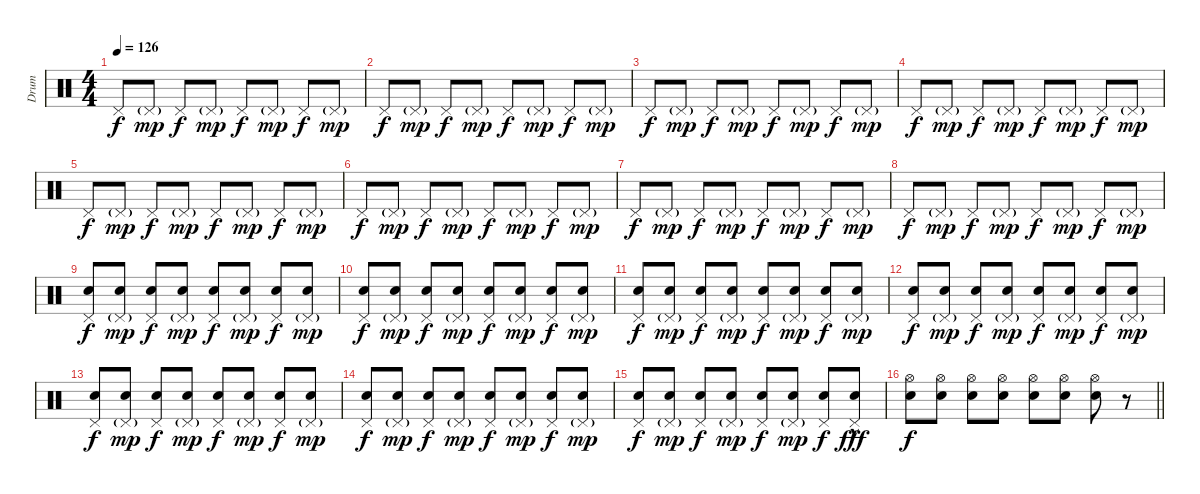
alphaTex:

\track ("Drum" "Drum") {instrument percussion}
\staff {score}
\articulation defaults
\ts (4 4)
\tempo 126
\clef neutral
\ks c "Pedal Hi-Hat (hit)".8{dy f} "Pedal Hi-Hat (hit)"{g}.8{dy mp} "Pedal Hi-Hat (hit)".8{dy f} "Pedal Hi-Hat (hit)"{g}.8{dy mp} "Pedal Hi-Hat (hit)".8{dy f} "Pedal Hi-Hat (hit)"{g}.8{dy mp} "Pedal Hi-Hat (hit)".8{dy f} "Pedal Hi-Hat (hit)"{g}.8{dy mp}
|
"Pedal Hi-Hat (hit)".8{dy f} "Pedal Hi-Hat (hit)"{g}.8{dy mp} "Pedal Hi-Hat (hit)".8{dy f} "Pedal Hi-Hat (hit)"{g}.8{dy mp} "Pedal Hi-Hat (hit)".8{dy f} "Pedal Hi-Hat (hit)"{g}.8{dy mp} "Pedal Hi-Hat (hit)".8{dy f} "Pedal Hi-Hat (hit)"{g}.8{dy mp} |
"Pedal Hi-Hat (hit)".8{dy f} "Pedal Hi-Hat (hit)"{g}.8{dy mp} "Pedal Hi-Hat (hit)".8{dy f} "Pedal Hi-Hat (hit)"{g}.8{dy mp} "Pedal Hi-Hat (hit)".8{dy f} "Pedal Hi-Hat (hit)"{g}.8{dy mp} "Pedal Hi-Hat (hit)".8{dy f} "Pedal Hi-Hat (hit)"{g}.8{dy mp} |
"Pedal Hi-Hat (hit)".8{dy f} "Pedal Hi-Hat (hit)"{g}.8{dy mp} "Pedal Hi-Hat (hit)".8{dy f} "Pedal Hi-Hat (hit)"{g}.8{dy mp} "Pedal Hi-Hat (hit)".8{dy f} "Pedal Hi-Hat (hit)"{g}.8{dy mp} "Pedal Hi-Hat (hit)".8{dy f} "Pedal Hi-Hat (hit)"{g}.8{dy mp} |
"Pedal Hi-Hat (hit)".8{dy f} "Pedal Hi-Hat (hit)"{g}.8{dy mp} "Pedal Hi-Hat (hit)".8{dy f} "Pedal Hi-Hat (hit)"{g}.8{dy mp} "Pedal Hi-Hat (hit)".8{dy f} "Pedal Hi-Hat (hit)"{g}.8{dy mp} "Pedal Hi-Hat (hit)".8{dy f} "Pedal Hi-Hat (hit)"{g}.8{dy mp} |
"Pedal Hi-Hat (hit)".8{dy f} "Pedal Hi-Hat (hit)"{g}.8{dy mp} "Pedal Hi-Hat (hit)".8{dy f} "Pedal Hi-Hat (hit)"{g}.8{dy mp} "Pedal Hi-Hat (hit)".8{dy f} "Pedal Hi-Hat (hit)"{g}.8{dy mp} "Pedal Hi-Hat (hit)".8{dy f} "Pedal Hi-Hat (hit)"{g}.8{dy mp} |
"Pedal Hi-Hat (hit)".8{dy f} "Pedal Hi-Hat (hit)"{g}.8{dy mp} "Pedal Hi-Hat (hit)".8{dy f} "Pedal Hi-Hat (hit)"{g}.8{dy mp} "Pedal Hi-Hat (hit)".8{dy f} "Pedal Hi-Hat (hit)"{g}.8{dy mp} "Pedal Hi-Hat (hit)".8{dy f} "Pedal Hi-Hat (hit)"{g}.8{dy mp} |
"Pedal Hi-Hat (hit)".8{dy f} "Pedal Hi-Hat (hit)"{g}.8{dy mp} "Pedal Hi-Hat (hit)".8{dy f} "Pedal Hi-Hat (hit)"{g}.8{dy mp} "Pedal Hi-Hat (hit)".8{dy f} "Pedal Hi-Hat (hit)"{g}.8{dy mp} "Pedal Hi-Hat (hit)".8{dy f} "Pedal Hi-Hat (hit)"{g}.8{dy mp volume 4} |
("Electric Snare (hit)" "Pedal Hi-Hat (hit)").8{dy f volume 6} ("Electric Snare (hit)" "Pedal Hi-Hat (hit)"{g}).8{dy mp} ("Electric Snare (hit)" "Pedal Hi-Hat (hit)").8{dy f} ("Electric Snare (hit)" "Pedal Hi-Hat (hit)"{g}).8{dy mp} ("Electric Snare (hit)" "Pedal Hi-Hat (hit)").8{dy f} ("Electric Snare (hit)" "Pedal Hi-Hat (hit)"{g}).8{dy mp} ("Electric Snare (hit)" "Pedal Hi-Hat (hit)").8{dy f} ("Electric Snare (hit)" "Pedal Hi-Hat (hit)"{g}).8{dy mp} |
("Electric Snare (hit)" "Pedal Hi-Hat (hit)").8{dy f volume 8} ("Electric Snare (hit)" "Pedal Hi-Hat (hit)"{g}).8{dy mp} ("Electric Snare (hit)" "Pedal Hi-Hat (hit)").8{dy f} ("Electric Snare (hit)" "Pedal Hi-Hat (hit)"{g}).8{dy mp} ("Electric Snare (hit)" "Pedal Hi-Hat (hit)").8{dy f} ("Electric Snare (hit)" "Pedal Hi-Hat (hit)"{g}).8{dy mp} ("Electric Snare (hit)" "Pedal Hi-Hat (hit)").8{dy f} ("Electric Snare (hit)" "Pedal Hi-Hat (hit)"{g}).8{dy mp} |
("Electric Snare (hit)" "Pedal Hi-Hat (hit)").8{dy f volume 10} ("Electric Snare (hit)" "Pedal Hi-Hat (hit)"{g}).8{dy mp} ("Electric Snare (hit)" "Pedal Hi-Hat (hit)").8{dy f} ("Electric Snare (hit)" "Pedal Hi-Hat (hit)"{g}).8{dy mp} ("Electric Snare (hit)" "Pedal Hi-Hat (hit)").8{dy f} ("Electric Snare (hit)" "Pedal Hi-Hat (hit)"{g}).8{dy mp} ("Electric Snare (hit)" "Pedal Hi-Hat (hit)").8{dy f} ("Electric Snare (hit)" "Pedal Hi-Hat (hit)"{g}).8{dy mp} |
("Electric Snare (hit)" "Pedal Hi-Hat (hit)").8{dy f} ("Electric Snare (hit)" "Pedal Hi-Hat (hit)"{g}).8{dy mp} ("Electric Snare (hit)" "Pedal Hi-Hat (hit)").8{dy f} ("Electric Snare (hit)" "Pedal Hi-Hat (hit)"{g}).8{dy mp} ("Electric Snare (hit)" "Pedal Hi-Hat (hit)").8{dy f} ("Electric Snare (hit)" "Pedal Hi-Hat (hit)"{g}).8{dy mp} ("Electric Snare (hit)" "Pedal Hi-Hat (hit)").8{dy f} ("Electric Snare (hit)" "Pedal Hi-Hat (hit)"{g}).8{dy mp} |
("Electric Snare (hit)" "Pedal Hi-Hat (hit)").8{dy f} ("Electric Snare (hit)" "Pedal Hi-Hat (hit)"{g}).8{dy mp} ("Electric Snare (hit)" "Pedal Hi-Hat (hit)").8{dy f} ("Electric Snare (hit)" "Pedal Hi-Hat (hit)"{g}).8{dy mp} ("Electric Snare (hit)" "Pedal Hi-Hat (hit)").8{dy f} ("Electric Snare (hit)" "Pedal Hi-Hat (hit)"{g}).8{dy mp} ("Electric Snare (hit)" "Pedal Hi-Hat (hit)").8{dy f} ("Electric Snare (hit)" "Pedal Hi-Hat (hit)"{g}).8{dy mp} |
("Electric Snare (hit)" "Pedal Hi-Hat (hit)").8{dy f} ("Electric Snare (hit)" "Pedal Hi-Hat (hit)"{g}).8{dy mp} ("Electric Snare (hit)" "Pedal Hi-Hat (hit)").8{dy f} ("Electric Snare (hit)" "Pedal Hi-Hat (hit)"{g}).8{dy mp} ("Electric Snare (hit)" "Pedal Hi-Hat (hit)").8{dy f} ("Electric Snare (hit)" "Pedal Hi-Hat (hit)"{g}).8{dy mp} ("Electric Snare (hit)" "Pedal Hi-Hat (hit)").8{dy f} ("Electric Snare (hit)" "Pedal Hi-Hat (hit)"{g}).8{dy mp} |
("Electric Snare (hit)" "Pedal Hi-Hat (hit)").8{dy f} ("Electric Snare (hit)" "Pedal Hi-Hat (hit)"{g}).8{dy mp} ("Electric Snare (hit)" "Pedal Hi-Hat (hit)").8{dy f} ("Electric Snare (hit)" "Pedal Hi-Hat (hit)"{g}).8{dy mp} ("Electric Snare (hit)" "Pedal Hi-Hat (hit)").8{dy f} ("Electric Snare (hit)" "Pedal Hi-Hat (hit)"{g}).8{dy mp} ("Electric Snare (hit)" "Pedal Hi-Hat (hit)").8{dy f} ("Electric Snare (hit)" "Pedal Hi-Hat (hit)"{hac}).8{dy fff} |
\barLineRight lightlight
("Electric Snare (hit)" "Hi-Hat (open)").8{dy f} ("Electric Snare (hit)" "Hi-Hat (open)").8 ("Electric Snare (hit)" "Hi-Hat (open)").8 ("Electric Snare (hit)" "Hi-Hat (open)").8 ("Electric Snare (hit)" "Hi-Hat (open)").8 ("Electric Snare (hit)" "Hi-Hat (open)").8 ("Hi-Hat (open)" "Electric Snare (hit)").8 r.8
